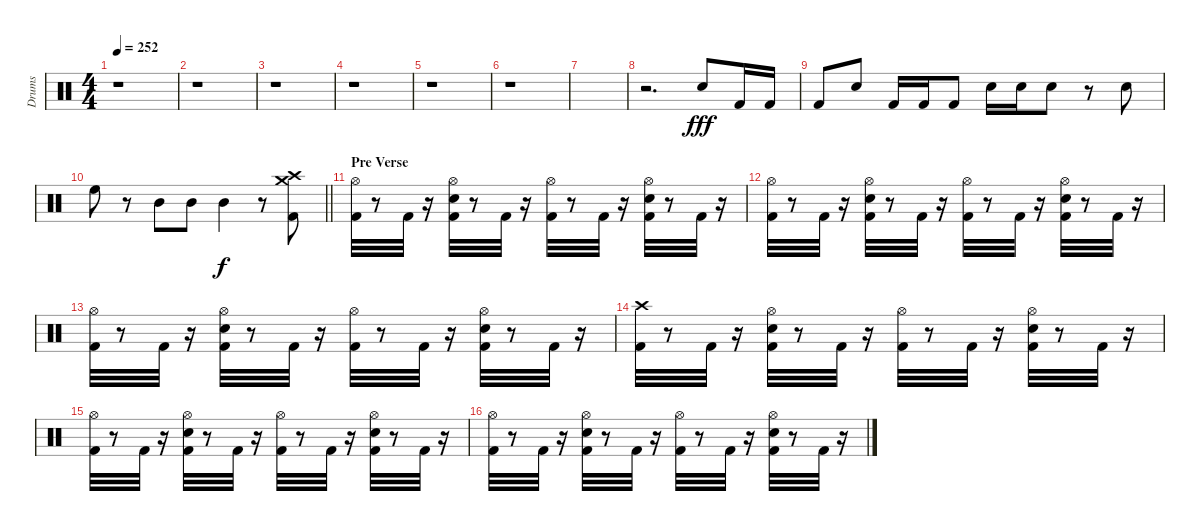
\track ("Drums" "Drums") {instrument percussion}
\staff {score}
\articulation defaults
\ts (4 4)
\tempo 252
\clef neutral
\ks c
r.1{dy f} |
r.1 |
r.1 |
r.1 |
r.1 |
r.1 |
|
r.2{d} "Snare (hit) 2".8{dy fff} "Kick (hit) 2".16 "Kick (hit) 2".16 |
"Kick (hit) 2".8 "Snare (hit) 2".8 "Kick (hit) 2".16 "Kick (hit) 2".16 "Kick (hit) 2".8 "Snare (hit) 2".16 "Snare (hit) 2".16 "Snare (hit) 2".8 r.8 "Snare (hit) 2".8 |
\barLineRight lightlight "High Floor Tom (hit)".8
r.8 "Mid Tom (hit)".8 "Mid Tom (hit)".8 "Mid Tom (hit)".4{dy f} r.8 ("Crash medium (hit)" "Crash high (hit)" "Kick (hit) 2").8 |
\section ("" "Pre Verse")
("Kick (hit) 2" "Hi-Hat (open)").32 r.8 "Kick (hit) 2".32 r.16 ("Kick (hit) 2" "Snare (hit) 2" "Hi-Hat (open)").32 r.8 "Kick (hit) 2".32 r.16 ("Kick (hit) 2" "Hi-Hat (open)").32 r.8 "Kick (hit) 2".32 r.16 ("Hi-Hat (open)" "Snare (hit) 2" "Kick (hit) 2").32 r.8 "Kick (hit) 2".32 r.16 |
("Hi-Hat (open)" "Kick (hit) 2").32 r.8 "Kick (hit) 2".32 r.16 ("Kick (hit) 2" "Hi-Hat (open)" "Snare (hit) 2").32 r.8 "Kick (hit) 2".32 r.16 ("Hi-Hat (open)" "Kick (hit) 2").32 r.8 "Kick (hit) 2".32 r.16 ("Snare (hit) 2" "Kick (hit) 2" "Hi-Hat (open)").32 r.8 "Kick (hit) 2".32 r.16 |
("Hi-Hat (open)" "Kick (hit) 2").32 r.8 "Kick (hit) 2".32 r.16 ("Hi-Hat (open)" "Snare (hit) 2" "Kick (hit) 2").32 r.8 "Kick (hit) 2".32 r.16 ("Hi-Hat (open)" "Kick (hit) 2").32 r.8 "Kick (hit) 2".32 r.16 ("Hi-Hat (open)" "Kick (hit) 2" "Snare (hit) 2").32 r.8 "Kick (hit) 2".32 r.16 |
("Crash high (hit)" "Kick (hit) 2").32 r.8 "Kick (hit) 2".32 r.16 ("Snare (hit) 2" "Kick (hit) 2" "Hi-Hat (open)").32 r.8 "Kick (hit) 2".32 r.16 ("Hi-Hat (open)" "Kick (hit) 2").32 r.8 "Kick (hit) 2".32 r.16 ("Kick (hit) 2" "Snare (hit) 2" "Hi-Hat (open)").32 r.8 "Kick (hit) 2".32 r.16 |
("Hi-Hat (open)" "Kick (hit) 2").32 r.8 "Kick (hit) 2".32 r.16 ("Kick (hit) 2" "Hi-Hat (open)" "Snare (hit) 2").32 r.8 "Kick (hit) 2".32 r.16 ("Hi-Hat (open)" "Kick (hit) 2").32 r.8 "Kick (hit) 2".32 r.16 ("Hi-Hat (open)" "Snare (hit) 2" "Kick (hit) 2").32 r.8 "Kick (hit) 2".32 r.16 |
("Kick (hit) 2" "Hi-Hat (open)").32 r.8 "Kick (hit) 2".32 r.16 ("Snare (hit) 2" "Hi-Hat (open)" "Kick (hit) 2").32 r.8 "Kick (hit) 2".32 r.16 ("Hi-Hat (open)" "Kick (hit) 2").32 r.8 "Kick (hit) 2".32 r.16 ("Snare (hit) 2" "Hi-Hat (open)" "Kick (hit) 2").32 r.8 "Kick (hit) 2".32 r.16
